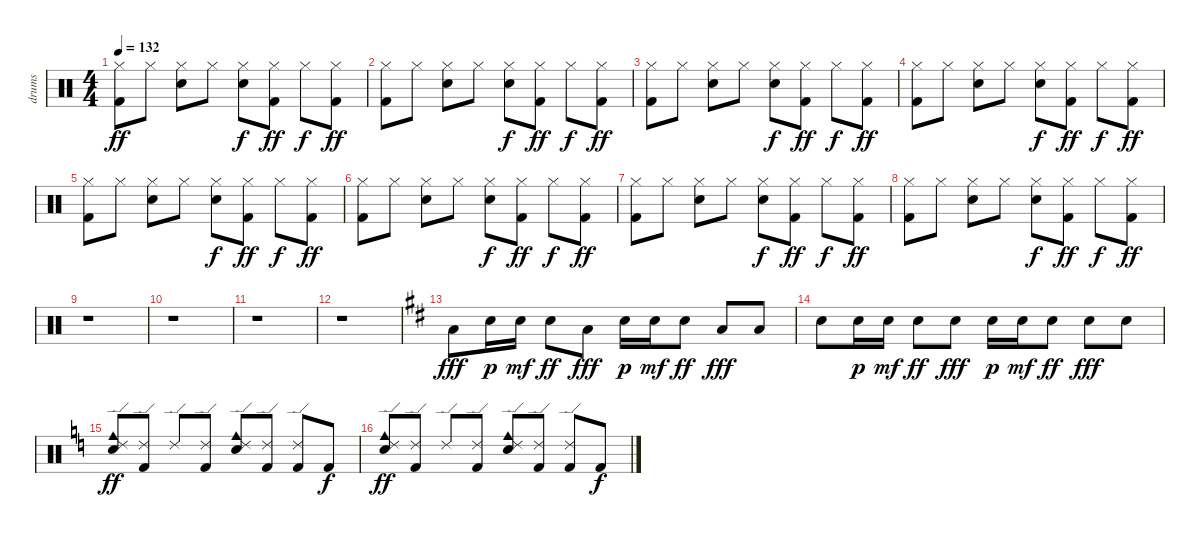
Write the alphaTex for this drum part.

\track ("drums" "drums") {instrument percussion}
\staff {score}
\articulation defaults
\ts (4 4)
\tempo 132
\clef neutral
\ks c
("Hi-Hat (closed)" "Kick (hit) 2").8{dy ff} "Hi-Hat (closed)".8 ("Hi-Hat (closed)" "Electric Snare (hit)").8 "Hi-Hat (closed)".8 ("Hi-Hat (closed)" "Electric Snare (hit)").8{dy f} ("Kick (hit) 2" "Hi-Hat (closed)").8{dy ff} "Hi-Hat (closed)".8{dy f} ("Kick (hit) 2" "Hi-Hat (closed)").8{dy ff} |
("Hi-Hat (closed)" "Kick (hit) 2").8 "Hi-Hat (closed)".8 ("Hi-Hat (closed)" "Electric Snare (hit)").8 "Hi-Hat (closed)".8 ("Hi-Hat (closed)" "Electric Snare (hit)").8{dy f} ("Kick (hit) 2" "Hi-Hat (closed)").8{dy ff} "Hi-Hat (closed)".8{dy f} ("Kick (hit) 2" "Hi-Hat (closed)").8{dy ff} |
("Hi-Hat (closed)" "Kick (hit) 2").8 "Hi-Hat (closed)".8 ("Hi-Hat (closed)" "Electric Snare (hit)").8 "Hi-Hat (closed)".8 ("Hi-Hat (closed)" "Electric Snare (hit)").8{dy f} ("Kick (hit) 2" "Hi-Hat (closed)").8{dy ff} "Hi-Hat (closed)".8{dy f} ("Kick (hit) 2" "Hi-Hat (closed)").8{dy ff} |
("Hi-Hat (closed)" "Kick (hit) 2").8 "Hi-Hat (closed)".8 ("Hi-Hat (closed)" "Electric Snare (hit)").8 "Hi-Hat (closed)".8 ("Hi-Hat (closed)" "Electric Snare (hit)").8{dy f} ("Kick (hit) 2" "Hi-Hat (closed)").8{dy ff} "Hi-Hat (closed)".8{dy f} ("Kick (hit) 2" "Hi-Hat (closed)").8{dy ff} |
("Hi-Hat (closed)" "Kick (hit) 2").8 "Hi-Hat (closed)".8 ("Hi-Hat (closed)" "Electric Snare (hit)").8 "Hi-Hat (closed)".8 ("Hi-Hat (closed)" "Electric Snare (hit)").8{dy f} ("Kick (hit) 2" "Hi-Hat (closed)").8{dy ff} "Hi-Hat (closed)".8{dy f} ("Kick (hit) 2" "Hi-Hat (closed)").8{dy ff} |
("Hi-Hat (closed)" "Kick (hit) 2").8 "Hi-Hat (closed)".8 ("Hi-Hat (closed)" "Electric Snare (hit)").8 "Hi-Hat (closed)".8 ("Hi-Hat (closed)" "Electric Snare (hit)").8{dy f} ("Kick (hit) 2" "Hi-Hat (closed)").8{dy ff} "Hi-Hat (closed)".8{dy f} ("Kick (hit) 2" "Hi-Hat (closed)").8{dy ff} |
("Hi-Hat (closed)" "Kick (hit) 2").8 "Hi-Hat (closed)".8 ("Hi-Hat (closed)" "Electric Snare (hit)").8 "Hi-Hat (closed)".8 ("Hi-Hat (closed)" "Electric Snare (hit)").8{dy f} ("Kick (hit) 2" "Hi-Hat (closed)").8{dy ff} "Hi-Hat (closed)".8{dy f} ("Kick (hit) 2" "Hi-Hat (closed)").8{dy ff} |
("Hi-Hat (closed)" "Kick (hit) 2").8 "Hi-Hat (closed)".8 ("Hi-Hat (closed)" "Electric Snare (hit)").8 "Hi-Hat (closed)".8 ("Hi-Hat (closed)" "Electric Snare (hit)").8{dy f} ("Kick (hit) 2" "Hi-Hat (closed)").8{dy ff} "Hi-Hat (closed)".8{dy f} ("Kick (hit) 2" "Hi-Hat (closed)").8{dy ff} |
r.1 |
r.1 |
r.1 |
r.1 |
\ks d "Low Tom (hit)".8{dy fff} "Electric Snare (hit)".16{dy p} "Electric Snare (hit)".16{dy mf} "Electric Snare (hit)".8{dy ff} "Low Tom (hit)".8{dy fff} "Electric Snare (hit)".16{dy p} "Electric Snare (hit)".16{dy mf} "Electric Snare (hit)".8{dy ff} "Low Tom (hit)".8{dy fff} "Low Tom (hit)".8
|
"Electric Snare (hit)".8 "Electric Snare (hit)".16{dy p} "Electric Snare (hit)".16{dy mf} "Electric Snare (hit)".8{dy ff} "Electric Snare (hit)".8{dy fff} "Electric Snare (hit)".16{dy p} "Electric Snare (hit)".16{dy mf} "Electric Snare (hit)".8{dy ff} "Electric Snare (hit)".8{dy fff} "Electric Snare (hit)".8 |
\ks c
("Cowbell medium (hit)" "Electric Snare (hit)" "Ride (edge) 2").8{dy ff} ("Kick (hit) 2" "Ride (edge) 2").8 "Ride (edge) 2".8 ("Ride (edge) 2" "Kick (hit) 2").8 ("Cowbell medium (hit)" "Electric Snare (hit)" "Ride (edge) 2").8 ("Kick (hit) 2" "Ride (edge) 2").8 ("Ride (edge) 2" "Kick (hit) 2").8 "Kick (hit) 2".8{dy f} |
("Cowbell medium (hit)" "Electric Snare (hit)" "Ride (edge) 2").8{dy ff} ("Kick (hit) 2" "Ride (edge) 2").8 "Ride (edge) 2".8 ("Ride (edge) 2" "Kick (hit) 2").8 ("Cowbell medium (hit)" "Electric Snare (hit)" "Ride (edge) 2").8 ("Kick (hit) 2" "Ride (edge) 2").8 ("Ride (edge) 2" "Kick (hit) 2").8 "Kick (hit) 2".8{dy f}
